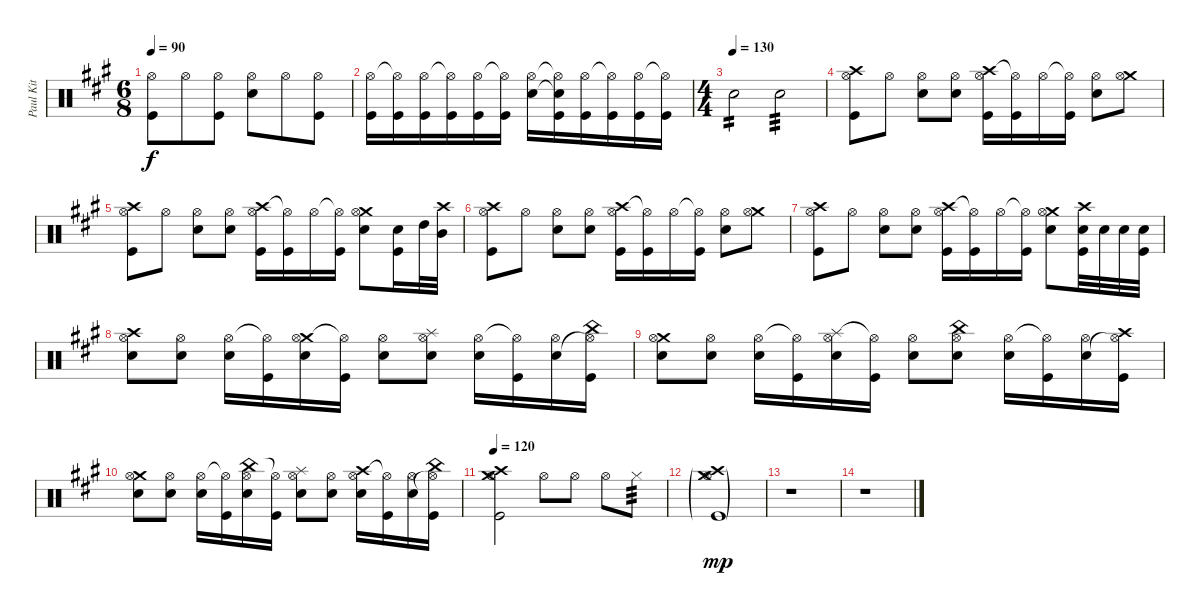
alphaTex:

\track ("Paul Kit" "Paul Kit") {instrument percussion}
\staff {score}
\articulation defaults
\ts (6 8)
\tempo 90
\clef neutral
\ks a
("Hi-Hat (open)" "Kick (hit)").8{dy f} "Hi-Hat (open)".8 ("Hi-Hat (open)" "Kick (hit)").8 ("Hi-Hat (open)" "Snare (hit) 2").8 "Hi-Hat (open)".8 ("Hi-Hat (open)" "Kick (hit)").8 |
("Hi-Hat (open)" "Kick (hit)").16 ("Hi-Hat (open)"{t} "Kick (hit)").16 ("Hi-Hat (open)" "Kick (hit)").16 ("Hi-Hat (open)"{t} "Kick (hit)").16 ("Hi-Hat (open)" "Kick (hit)").16 ("Hi-Hat (open)"{t} "Kick (hit)").16 ("Hi-Hat (open)" "Snare (hit) 2").16 ("Hi-Hat (open)"{t} "Snare (hit) 2"{t} "Kick (hit)").16 ("Hi-Hat (open)" "Kick (hit)").16 ("Hi-Hat (open)"{t} "Kick (hit)").16 ("Hi-Hat (open)" "Kick (hit)").16 ("Hi-Hat (open)"{t} "Kick (hit)").16 |
\ts (4 4)
\tempo (130)
"Snare (hit) 2".2{tp 2} "Snare (hit) 2".2{tp 3} |
("Crash high (hit)" "Hi-Hat (open)" "Kick (hit)").8 "Hi-Hat (open)".8 ("Hi-Hat (open)" "Snare (hit) 2").8 ("Hi-Hat (open)" "Snare (hit) 2").8 ("Crash high (hit)" "Hi-Hat (open)" "Kick (hit)").16 ("Hi-Hat (open)"{t} "Kick (hit)").16 "Hi-Hat (open)".16 ("Hi-Hat (open)"{t} "Kick (hit)").16 ("Hi-Hat (open)" "Snare (hit) 2").8 ("Crash medium (hit)" "Hi-Hat (open)").8 |
("Crash high (hit)" "Hi-Hat (open)" "Kick (hit)").8 "Hi-Hat (open)".8 ("Hi-Hat (open)" "Snare (hit) 2").8 ("Hi-Hat (open)" "Snare (hit) 2").8 ("Crash high (hit)" "Hi-Hat (open)" "Kick (hit)").16 ("Hi-Hat (open)"{t} "Kick (hit)").16 "Hi-Hat (open)".16 ("Hi-Hat (open)"{t} "Kick (hit)").16 ("Crash medium (hit)" "Hi-Hat (open)" "Snare (hit) 2").8 ("Snare (hit) 2" "Kick (hit)").16 "High Tom (hit)".32 ("Crash high (hit)" "Mid Tom (hit)").32 |
("Crash high (hit)" "Hi-Hat (open)" "Kick (hit)").8 "Hi-Hat (open)".8 ("Hi-Hat (open)" "Snare (hit) 2").8 ("Hi-Hat (open)" "Snare (hit) 2").8 ("Crash high (hit)" "Hi-Hat (open)" "Kick (hit)").16 ("Hi-Hat (open)"{t} "Kick (hit)").16 "Hi-Hat (open)".16 ("Hi-Hat (open)"{t} "Kick (hit)").16 ("Hi-Hat (open)" "Snare (hit) 2").8 ("Crash medium (hit)" "Hi-Hat (open)").8 |
("Crash high (hit)" "Hi-Hat (open)" "Kick (hit)").8 "Hi-Hat (open)".8 ("Hi-Hat (open)" "Snare (hit) 2").8 ("Hi-Hat (open)" "Snare (hit) 2").8 ("Crash high (hit)" "Hi-Hat (open)" "Kick (hit)").16 ("Hi-Hat (open)"{t} "Kick (hit)").16 "Hi-Hat (open)".16 ("Hi-Hat (open)"{t} "Kick (hit)").16 ("Crash medium (hit)" "Hi-Hat (open)" "Snare (hit) 2").8 ("Crash high (hit)" "Snare (hit) 2" "Kick (hit)").32 "Snare (hit) 2".32 "Snare (hit) 2".32 ("Snare (hit) 2" "Kick (hit)").32 |
("Crash high (hit)" "Hi-Hat (open)" "Snare (hit) 2").8 ("Hi-Hat (open)" "Snare (hit) 2").8 ("Hi-Hat (open)" "Snare (hit) 2").16 ("Hi-Hat (open)"{t} "Kick (hit)").16 ("Crash medium (hit)" "Hi-Hat (open)" "Snare (hit) 2").16 ("Hi-Hat (open)"{t} "Kick (hit)").16 ("Hi-Hat (open)" "Snare (hit) 2").8 ("Splash (hit)" "Hi-Hat (open)" "Snare (hit) 2").8 ("Hi-Hat (open)" "Snare (hit) 2").16 ("Hi-Hat (open)"{t} "Kick (hit)").16 ("Hi-Hat (open)" "Snare (hit) 2").16 ("China (hit)" "Hi-Hat (open)"{t} "Kick (hit)").16 |
("Crash medium (hit)" "Hi-Hat (open)" "Snare (hit) 2").8 ("Hi-Hat (open)" "Snare (hit) 2").8 ("Hi-Hat (open)" "Snare (hit) 2").16 ("Hi-Hat (open)"{t} "Kick (hit)").16 ("Splash (hit)" "Hi-Hat (open)" "Snare (hit) 2").16 ("Hi-Hat (open)"{t} "Kick (hit)").16 ("Hi-Hat (open)" "Snare (hit) 2").8 ("China (hit)" "Hi-Hat (open)" "Snare (hit) 2").8 ("Hi-Hat (open)" "Snare (hit) 2").16 ("Hi-Hat (open)"{t} "Kick (hit)").16 ("Hi-Hat (open)" "Snare (hit) 2").16 ("Crash high (hit)" "Hi-Hat (open)"{t} "Kick (hit)").16 |
("Crash medium (hit)" "Hi-Hat (open)" "Snare (hit) 2").8 ("Hi-Hat (open)" "Snare (hit) 2").8 ("Hi-Hat (open)" "Snare (hit) 2").16 ("Hi-Hat (open)"{t} "Kick (hit)").16 ("China (hit)" "Hi-Hat (open)" "Snare (hit) 2").16 ("Hi-Hat (open)"{t} "Kick (hit)").16 ("Splash (hit)" "Hi-Hat (open)" "Snare (hit) 2").8 ("Hi-Hat (open)" "Snare (hit) 2").8 ("Crash high (hit)" "Hi-Hat (open)" "Snare (hit) 2").16 ("Hi-Hat (open)"{t} "Kick (hit)").16 ("Hi-Hat (open)" "Snare (hit) 2").16 ("China (hit)" "Hi-Hat (open)"{t} "Kick (hit)").16 |
\tempo 120
("Crash high (hit)" "Crash medium (hit)" "Hi-Hat (open)" "Kick (hit)").2 "Hi-Hat (open)".8 "Hi-Hat (open)".8 "Hi-Hat (open)".8 "Hi-Hat (closed)".8{tp 3} |
("Crash high (hit)"{g} "Crash medium (hit)"{g} "Hi-Hat (open)"{g} "Kick (hit)"{g}).1{dy mp} |
r.1 |
r.1
